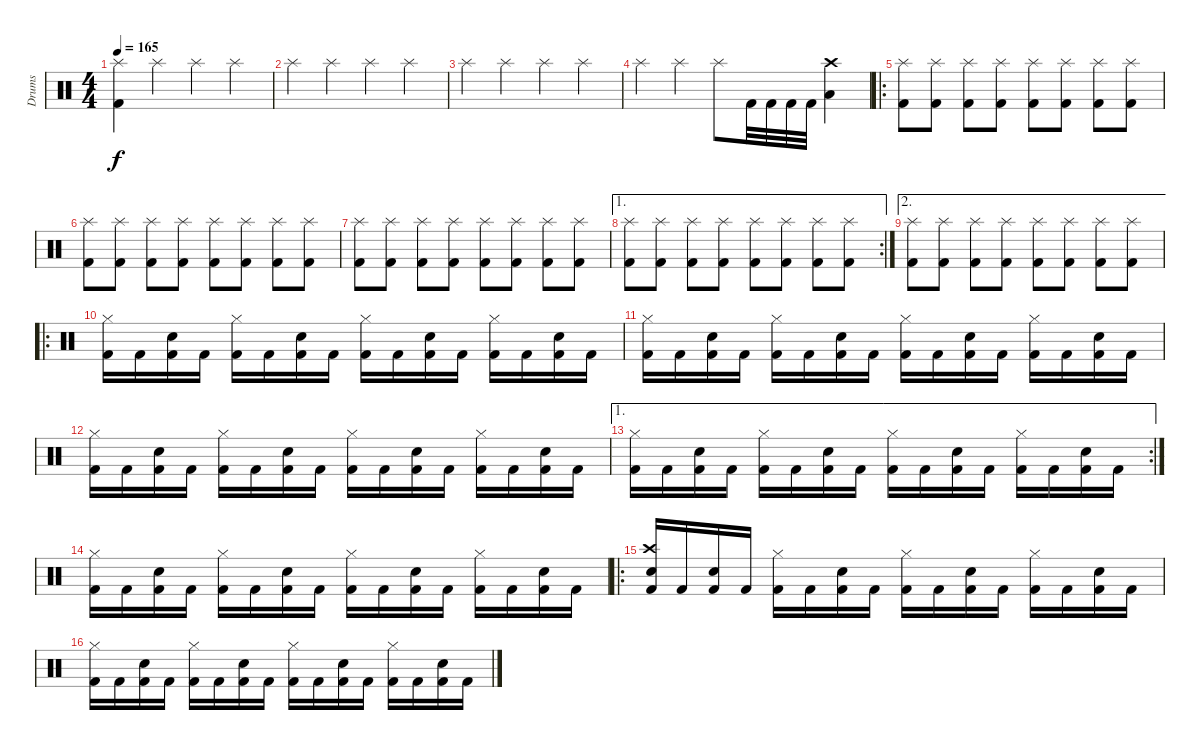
\track ("Drums" "Drums") {instrument percussion}
\staff {score}
\articulation defaults
\ts (4 4)
\tempo 165
\clef neutral
\ks c
("Splash (hit)" "Kick (hit) 2").4{dy f} "Splash (hit)".4 "Splash (hit)".4 "Splash (hit)".4 |
"Splash (hit)".4 "Splash (hit)".4 "Splash (hit)".4 "Splash (hit)".4 |
"Splash (hit)".4 "Splash (hit)".4 "Splash (hit)".4 "Splash (hit)".4 |
"Splash (hit)".4 "Splash (hit)".4 "Splash (hit)".8 "Kick (hit) 2".32 "Kick (hit) 2".32 "Kick (hit) 2".32 "Kick (hit) 2".32 ("Crash high (hit)" "Low Tom (hit)").4 |
\ro
("Splash (hit)" "Kick (hit) 2").8 ("Splash (hit)" "Kick (hit) 2").8 ("Splash (hit)" "Kick (hit) 2").8 ("Splash (hit)" "Kick (hit) 2").8 ("Splash (hit)" "Kick (hit) 2").8 ("Splash (hit)" "Kick (hit) 2").8 ("Splash (hit)" "Kick (hit) 2").8 ("Splash (hit)" "Kick (hit) 2").8 |
("Splash (hit)" "Kick (hit) 2").8 ("Splash (hit)" "Kick (hit) 2").8 ("Splash (hit)" "Kick (hit) 2").8 ("Splash (hit)" "Kick (hit) 2").8 ("Splash (hit)" "Kick (hit) 2").8 ("Splash (hit)" "Kick (hit) 2").8 ("Splash (hit)" "Kick (hit) 2").8 ("Splash (hit)" "Kick (hit) 2").8 |
("Splash (hit)" "Kick (hit) 2").8 ("Splash (hit)" "Kick (hit) 2").8 ("Splash (hit)" "Kick (hit) 2").8 ("Splash (hit)" "Kick (hit) 2").8 ("Splash (hit)" "Kick (hit) 2").8 ("Splash (hit)" "Kick (hit) 2").8 ("Splash (hit)" "Kick (hit) 2").8 ("Splash (hit)" "Kick (hit) 2").8 |
\ae 1
\rc 2
("Splash (hit)" "Kick (hit) 2").8 ("Splash (hit)" "Kick (hit) 2").8 ("Splash (hit)" "Kick (hit) 2").8 ("Splash (hit)" "Kick (hit) 2").8 ("Splash (hit)" "Kick (hit) 2").8 ("Splash (hit)" "Kick (hit) 2").8 ("Splash (hit)" "Kick (hit) 2").8 ("Splash (hit)" "Kick (hit) 2").8 |
\ae 2
("Splash (hit)" "Kick (hit) 2").8 ("Splash (hit)" "Kick (hit) 2").8 ("Splash (hit)" "Kick (hit) 2").8 ("Splash (hit)" "Kick (hit) 2").8 ("Splash (hit)" "Kick (hit) 2").8 ("Splash (hit)" "Kick (hit) 2").8 ("Splash (hit)" "Kick (hit) 2").8 ("Splash (hit)" "Kick (hit) 2").8 |
\ro
("Hi-Hat (closed)" "Kick (hit) 2").16 "Kick (hit) 2".16 ("Snare (hit) 2" "Kick (hit) 2").16 "Kick (hit) 2".16 ("Hi-Hat (closed)" "Kick (hit) 2").16 "Kick (hit) 2".16 ("Snare (hit) 2" "Kick (hit) 2").16 "Kick (hit) 2".16 ("Hi-Hat (closed)" "Kick (hit) 2").16 "Kick (hit) 2".16 ("Snare (hit) 2" "Kick (hit) 2").16 "Kick (hit) 2".16 ("Hi-Hat (closed)" "Kick (hit) 2").16 "Kick (hit) 2".16 ("Snare (hit) 2" "Kick (hit) 2").16 "Kick (hit) 2".16 |
("Hi-Hat (closed)" "Kick (hit) 2").16 "Kick (hit) 2".16 ("Snare (hit) 2" "Kick (hit) 2").16 "Kick (hit) 2".16 ("Hi-Hat (closed)" "Kick (hit) 2").16 "Kick (hit) 2".16 ("Snare (hit) 2" "Kick (hit) 2").16 "Kick (hit) 2".16 ("Hi-Hat (closed)" "Kick (hit) 2").16 "Kick (hit) 2".16 ("Snare (hit) 2" "Kick (hit) 2").16 "Kick (hit) 2".16 ("Hi-Hat (closed)" "Kick (hit) 2").16 "Kick (hit) 2".16 ("Snare (hit) 2" "Kick (hit) 2").16 "Kick (hit) 2".16 |
("Hi-Hat (closed)" "Kick (hit) 2").16 "Kick (hit) 2".16 ("Snare (hit) 2" "Kick (hit) 2").16 "Kick (hit) 2".16 ("Hi-Hat (closed)" "Kick (hit) 2").16 "Kick (hit) 2".16 ("Snare (hit) 2" "Kick (hit) 2").16 "Kick (hit) 2".16 ("Hi-Hat (closed)" "Kick (hit) 2").16 "Kick (hit) 2".16 ("Snare (hit) 2" "Kick (hit) 2").16 "Kick (hit) 2".16 ("Hi-Hat (closed)" "Kick (hit) 2").16 "Kick (hit) 2".16 ("Snare (hit) 2" "Kick (hit) 2").16 "Kick (hit) 2".16 |
\ae 1
\rc 2
("Hi-Hat (closed)" "Kick (hit) 2").16 "Kick (hit) 2".16 ("Snare (hit) 2" "Kick (hit) 2").16 "Kick (hit) 2".16 ("Hi-Hat (closed)" "Kick (hit) 2").16 "Kick (hit) 2".16 ("Snare (hit) 2" "Kick (hit) 2").16 "Kick (hit) 2".16 ("Hi-Hat (closed)" "Kick (hit) 2").16 "Kick (hit) 2".16 ("Snare (hit) 2" "Kick (hit) 2").16 "Kick (hit) 2".16 ("Hi-Hat (closed)" "Kick (hit) 2").16 "Kick (hit) 2".16 ("Snare (hit) 2" "Kick (hit) 2").16 "Kick (hit) 2".16 |
("Hi-Hat (closed)" "Kick (hit) 2").16 "Kick (hit) 2".16 ("Snare (hit) 2" "Kick (hit) 2").16 "Kick (hit) 2".16 ("Hi-Hat (closed)" "Kick (hit) 2").16 "Kick (hit) 2".16 ("Snare (hit) 2" "Kick (hit) 2").16 "Kick (hit) 2".16 ("Hi-Hat (closed)" "Kick (hit) 2").16 "Kick (hit) 2".16 ("Snare (hit) 2" "Kick (hit) 2").16 "Kick (hit) 2".16 ("Hi-Hat (closed)" "Kick (hit) 2").16 "Kick (hit) 2".16 ("Snare (hit) 2" "Kick (hit) 2").16 "Kick (hit) 2".16 |
\ro
("Crash high (hit)" "Snare (hit) 2" "Kick (hit) 2").16 "Kick (hit) 2".16 ("Snare (hit) 2" "Kick (hit) 2").16 "Kick (hit) 2".16 ("Hi-Hat (closed)" "Kick (hit) 2").16 "Kick (hit) 2".16 ("Snare (hit) 2" "Kick (hit) 2").16 "Kick (hit) 2".16 ("Hi-Hat (closed)" "Kick (hit) 2").16 "Kick (hit) 2".16 ("Snare (hit) 2" "Kick (hit) 2").16 "Kick (hit) 2".16 ("Hi-Hat (closed)" "Kick (hit) 2").16 "Kick (hit) 2".16 ("Snare (hit) 2" "Kick (hit) 2").16 "Kick (hit) 2".16 |
("Hi-Hat (closed)" "Kick (hit) 2").16 "Kick (hit) 2".16 ("Snare (hit) 2" "Kick (hit) 2").16 "Kick (hit) 2".16 ("Hi-Hat (closed)" "Kick (hit) 2").16 "Kick (hit) 2".16 ("Snare (hit) 2" "Kick (hit) 2").16 "Kick (hit) 2".16 ("Hi-Hat (closed)" "Kick (hit) 2").16 "Kick (hit) 2".16 ("Snare (hit) 2" "Kick (hit) 2").16 "Kick (hit) 2".16 ("Hi-Hat (closed)" "Kick (hit) 2").16 "Kick (hit) 2".16 ("Snare (hit) 2" "Kick (hit) 2").16 "Kick (hit) 2".16
